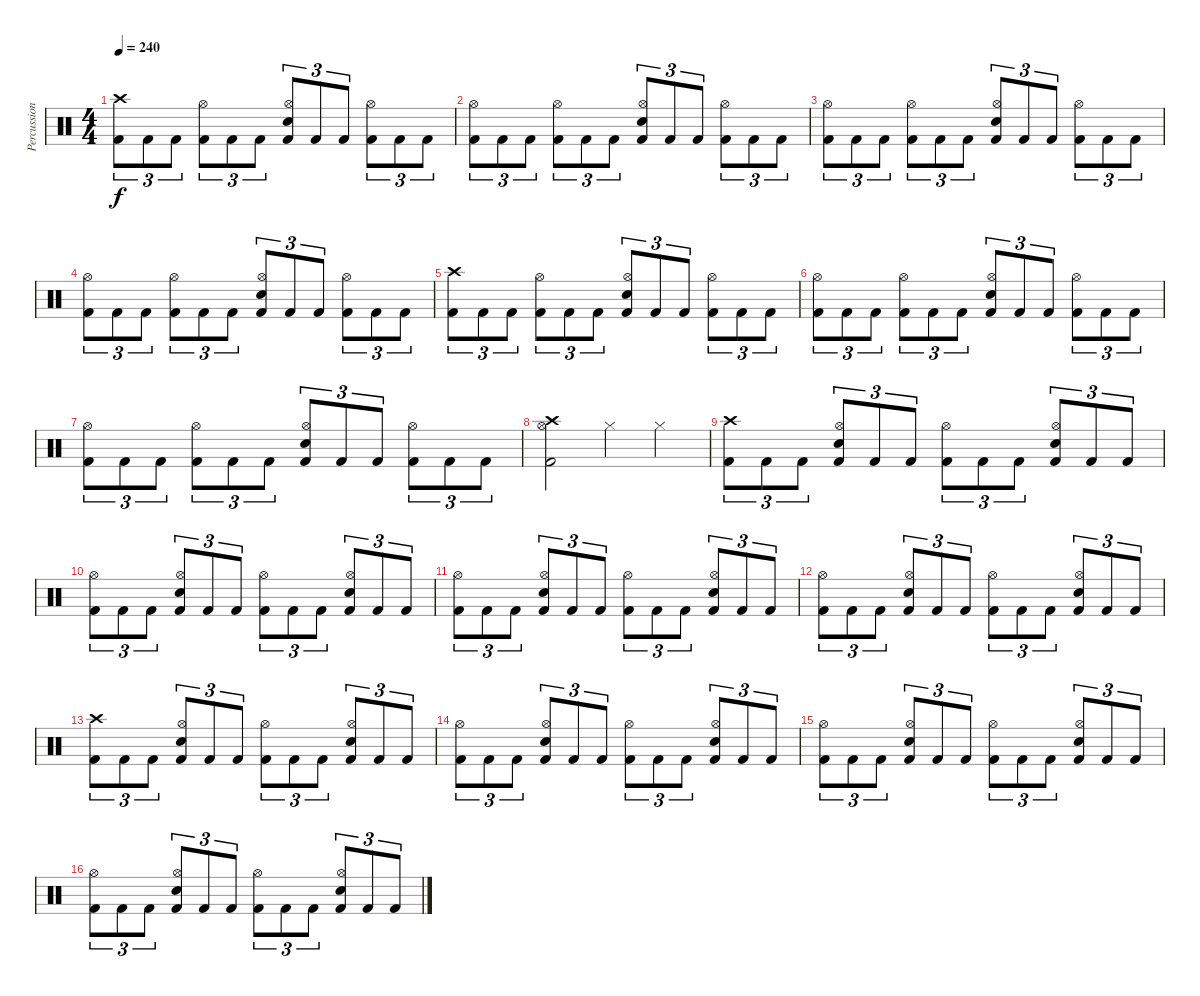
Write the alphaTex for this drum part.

\track ("Percussion" "Percussion") {instrument percussion}
\staff {score}
\articulation defaults
\ts (4 4)
\tempo 240
\clef neutral
\ks c
("Kick (hit) 2" "Crash high (hit)").8{tu (3 2) dy f} "Kick (hit) 2".8{tu (3 2)} "Kick (hit) 2".8{tu (3 2)} ("Kick (hit) 2" "Hi-Hat (open)").8{tu (3 2)} "Kick (hit) 2".8{tu (3 2)} "Kick (hit) 2".8{tu (3 2)} ("Kick (hit) 2" "Hi-Hat (open)" "Electric Snare (hit)").8{tu (3 2)} "Kick (hit) 2".8{tu (3 2)} "Kick (hit) 2".8{tu (3 2)} ("Kick (hit) 2" "Hi-Hat (open)").8{tu (3 2)} "Kick (hit) 2".8{tu (3 2)} "Kick (hit) 2".8{tu (3 2)} |
("Kick (hit) 2" "Hi-Hat (open)").8{tu (3 2)} "Kick (hit) 2".8{tu (3 2)} "Kick (hit) 2".8{tu (3 2)} ("Kick (hit) 2" "Hi-Hat (open)").8{tu (3 2)} "Kick (hit) 2".8{tu (3 2)} "Kick (hit) 2".8{tu (3 2)} ("Kick (hit) 2" "Hi-Hat (open)" "Electric Snare (hit)").8{tu (3 2)} "Kick (hit) 2".8{tu (3 2)} "Kick (hit) 2".8{tu (3 2)} ("Kick (hit) 2" "Hi-Hat (open)").8{tu (3 2)} "Kick (hit) 2".8{tu (3 2)} "Kick (hit) 2".8{tu (3 2)} |
("Kick (hit) 2" "Hi-Hat (open)").8{tu (3 2)} "Kick (hit) 2".8{tu (3 2)} "Kick (hit) 2".8{tu (3 2)} ("Kick (hit) 2" "Hi-Hat (open)").8{tu (3 2)} "Kick (hit) 2".8{tu (3 2)} "Kick (hit) 2".8{tu (3 2)} ("Kick (hit) 2" "Hi-Hat (open)" "Electric Snare (hit)").8{tu (3 2)} "Kick (hit) 2".8{tu (3 2)} "Kick (hit) 2".8{tu (3 2)} ("Kick (hit) 2" "Hi-Hat (open)").8{tu (3 2)} "Kick (hit) 2".8{tu (3 2)} "Kick (hit) 2".8{tu (3 2)} |
("Kick (hit) 2" "Hi-Hat (open)").8{tu (3 2)} "Kick (hit) 2".8{tu (3 2)} "Kick (hit) 2".8{tu (3 2)} ("Kick (hit) 2" "Hi-Hat (open)").8{tu (3 2)} "Kick (hit) 2".8{tu (3 2)} "Kick (hit) 2".8{tu (3 2)} ("Kick (hit) 2" "Hi-Hat (open)" "Electric Snare (hit)").8{tu (3 2)} "Kick (hit) 2".8{tu (3 2)} "Kick (hit) 2".8{tu (3 2)} ("Kick (hit) 2" "Hi-Hat (open)").8{tu (3 2)} "Kick (hit) 2".8{tu (3 2)} "Kick (hit) 2".8{tu (3 2)} |
("Kick (hit) 2" "Crash high (hit)").8{tu (3 2)} "Kick (hit) 2".8{tu (3 2)} "Kick (hit) 2".8{tu (3 2)} ("Kick (hit) 2" "Hi-Hat (open)").8{tu (3 2)} "Kick (hit) 2".8{tu (3 2)} "Kick (hit) 2".8{tu (3 2)} ("Kick (hit) 2" "Hi-Hat (open)" "Electric Snare (hit)").8{tu (3 2)} "Kick (hit) 2".8{tu (3 2)} "Kick (hit) 2".8{tu (3 2)} ("Kick (hit) 2" "Hi-Hat (open)").8{tu (3 2)} "Kick (hit) 2".8{tu (3 2)} "Kick (hit) 2".8{tu (3 2)} |
("Kick (hit) 2" "Hi-Hat (open)").8{tu (3 2)} "Kick (hit) 2".8{tu (3 2)} "Kick (hit) 2".8{tu (3 2)} ("Kick (hit) 2" "Hi-Hat (open)").8{tu (3 2)} "Kick (hit) 2".8{tu (3 2)} "Kick (hit) 2".8{tu (3 2)} ("Kick (hit) 2" "Hi-Hat (open)" "Electric Snare (hit)").8{tu (3 2)} "Kick (hit) 2".8{tu (3 2)} "Kick (hit) 2".8{tu (3 2)} ("Kick (hit) 2" "Hi-Hat (open)").8{tu (3 2)} "Kick (hit) 2".8{tu (3 2)} "Kick (hit) 2".8{tu (3 2)} |
("Kick (hit) 2" "Hi-Hat (open)").8{tu (3 2)} "Kick (hit) 2".8{tu (3 2)} "Kick (hit) 2".8{tu (3 2)} ("Kick (hit) 2" "Hi-Hat (open)").8{tu (3 2)} "Kick (hit) 2".8{tu (3 2)} "Kick (hit) 2".8{tu (3 2)} ("Kick (hit) 2" "Hi-Hat (open)" "Electric Snare (hit)").8{tu (3 2)} "Kick (hit) 2".8{tu (3 2)} "Kick (hit) 2".8{tu (3 2)} ("Kick (hit) 2" "Hi-Hat (open)").8{tu (3 2)} "Kick (hit) 2".8{tu (3 2)} "Kick (hit) 2".8{tu (3 2)} |
("Kick (hit) 2" "Hi-Hat (open)" "Crash high (hit)").2 "Hi-Hat (closed)".4 "Hi-Hat (closed)".4 |
("Kick (hit) 2" "Crash high (hit)").8{tu (3 2)} "Kick (hit) 2".8{tu (3 2)} "Kick (hit) 2".8{tu (3 2)} ("Kick (hit) 2" "Hi-Hat (open)" "Electric Snare (hit)").8{tu (3 2)} "Kick (hit) 2".8{tu (3 2)} "Kick (hit) 2".8{tu (3 2)} ("Kick (hit) 2" "Hi-Hat (open)").8{tu (3 2)} "Kick (hit) 2".8{tu (3 2)} "Kick (hit) 2".8{tu (3 2)} ("Kick (hit) 2" "Hi-Hat (open)" "Electric Snare (hit)").8{tu (3 2)} "Kick (hit) 2".8{tu (3 2)} "Kick (hit) 2".8{tu (3 2)} |
("Kick (hit) 2" "Hi-Hat (open)").8{tu (3 2)} "Kick (hit) 2".8{tu (3 2)} "Kick (hit) 2".8{tu (3 2)} ("Kick (hit) 2" "Hi-Hat (open)" "Electric Snare (hit)").8{tu (3 2)} "Kick (hit) 2".8{tu (3 2)} "Kick (hit) 2".8{tu (3 2)} ("Kick (hit) 2" "Hi-Hat (open)").8{tu (3 2)} "Kick (hit) 2".8{tu (3 2)} "Kick (hit) 2".8{tu (3 2)} ("Kick (hit) 2" "Hi-Hat (open)" "Electric Snare (hit)").8{tu (3 2)} "Kick (hit) 2".8{tu (3 2)} "Kick (hit) 2".8{tu (3 2)} |
("Kick (hit) 2" "Hi-Hat (open)").8{tu (3 2)} "Kick (hit) 2".8{tu (3 2)} "Kick (hit) 2".8{tu (3 2)} ("Kick (hit) 2" "Hi-Hat (open)" "Electric Snare (hit)").8{tu (3 2)} "Kick (hit) 2".8{tu (3 2)} "Kick (hit) 2".8{tu (3 2)} ("Kick (hit) 2" "Hi-Hat (open)").8{tu (3 2)} "Kick (hit) 2".8{tu (3 2)} "Kick (hit) 2".8{tu (3 2)} ("Kick (hit) 2" "Hi-Hat (open)" "Electric Snare (hit)").8{tu (3 2)} "Kick (hit) 2".8{tu (3 2)} "Kick (hit) 2".8{tu (3 2)} |
("Kick (hit) 2" "Hi-Hat (open)").8{tu (3 2)} "Kick (hit) 2".8{tu (3 2)} "Kick (hit) 2".8{tu (3 2)} ("Kick (hit) 2" "Hi-Hat (open)" "Electric Snare (hit)").8{tu (3 2)} "Kick (hit) 2".8{tu (3 2)} "Kick (hit) 2".8{tu (3 2)} ("Kick (hit) 2" "Hi-Hat (open)").8{tu (3 2)} "Kick (hit) 2".8{tu (3 2)} "Kick (hit) 2".8{tu (3 2)} ("Kick (hit) 2" "Hi-Hat (open)" "Electric Snare (hit)").8{tu (3 2)} "Kick (hit) 2".8{tu (3 2)} "Kick (hit) 2".8{tu (3 2)} |
("Kick (hit) 2" "Crash high (hit)").8{tu (3 2)} "Kick (hit) 2".8{tu (3 2)} "Kick (hit) 2".8{tu (3 2)} ("Kick (hit) 2" "Hi-Hat (open)" "Electric Snare (hit)").8{tu (3 2)} "Kick (hit) 2".8{tu (3 2)} "Kick (hit) 2".8{tu (3 2)} ("Kick (hit) 2" "Hi-Hat (open)").8{tu (3 2)} "Kick (hit) 2".8{tu (3 2)} "Kick (hit) 2".8{tu (3 2)} ("Kick (hit) 2" "Hi-Hat (open)" "Electric Snare (hit)").8{tu (3 2)} "Kick (hit) 2".8{tu (3 2)} "Kick (hit) 2".8{tu (3 2)} |
("Kick (hit) 2" "Hi-Hat (open)").8{tu (3 2)} "Kick (hit) 2".8{tu (3 2)} "Kick (hit) 2".8{tu (3 2)} ("Kick (hit) 2" "Hi-Hat (open)" "Electric Snare (hit)").8{tu (3 2)} "Kick (hit) 2".8{tu (3 2)} "Kick (hit) 2".8{tu (3 2)} ("Kick (hit) 2" "Hi-Hat (open)").8{tu (3 2)} "Kick (hit) 2".8{tu (3 2)} "Kick (hit) 2".8{tu (3 2)} ("Kick (hit) 2" "Hi-Hat (open)" "Electric Snare (hit)").8{tu (3 2)} "Kick (hit) 2".8{tu (3 2)} "Kick (hit) 2".8{tu (3 2)} |
("Kick (hit) 2" "Hi-Hat (open)").8{tu (3 2)} "Kick (hit) 2".8{tu (3 2)} "Kick (hit) 2".8{tu (3 2)} ("Kick (hit) 2" "Hi-Hat (open)" "Electric Snare (hit)").8{tu (3 2)} "Kick (hit) 2".8{tu (3 2)} "Kick (hit) 2".8{tu (3 2)} ("Kick (hit) 2" "Hi-Hat (open)").8{tu (3 2)} "Kick (hit) 2".8{tu (3 2)} "Kick (hit) 2".8{tu (3 2)} ("Kick (hit) 2" "Hi-Hat (open)" "Electric Snare (hit)").8{tu (3 2)} "Kick (hit) 2".8{tu (3 2)} "Kick (hit) 2".8{tu (3 2)} |
("Kick (hit) 2" "Hi-Hat (open)").8{tu (3 2)} "Kick (hit) 2".8{tu (3 2)} "Kick (hit) 2".8{tu (3 2)} ("Kick (hit) 2" "Hi-Hat (open)" "Electric Snare (hit)").8{tu (3 2)} "Kick (hit) 2".8{tu (3 2)} "Kick (hit) 2".8{tu (3 2)} ("Kick (hit) 2" "Hi-Hat (open)").8{tu (3 2)} "Kick (hit) 2".8{tu (3 2)} "Kick (hit) 2".8{tu (3 2)} ("Kick (hit) 2" "Hi-Hat (open)" "Electric Snare (hit)").8{tu (3 2)} "Kick (hit) 2".8{tu (3 2)} "Kick (hit) 2".8{tu (3 2)}
